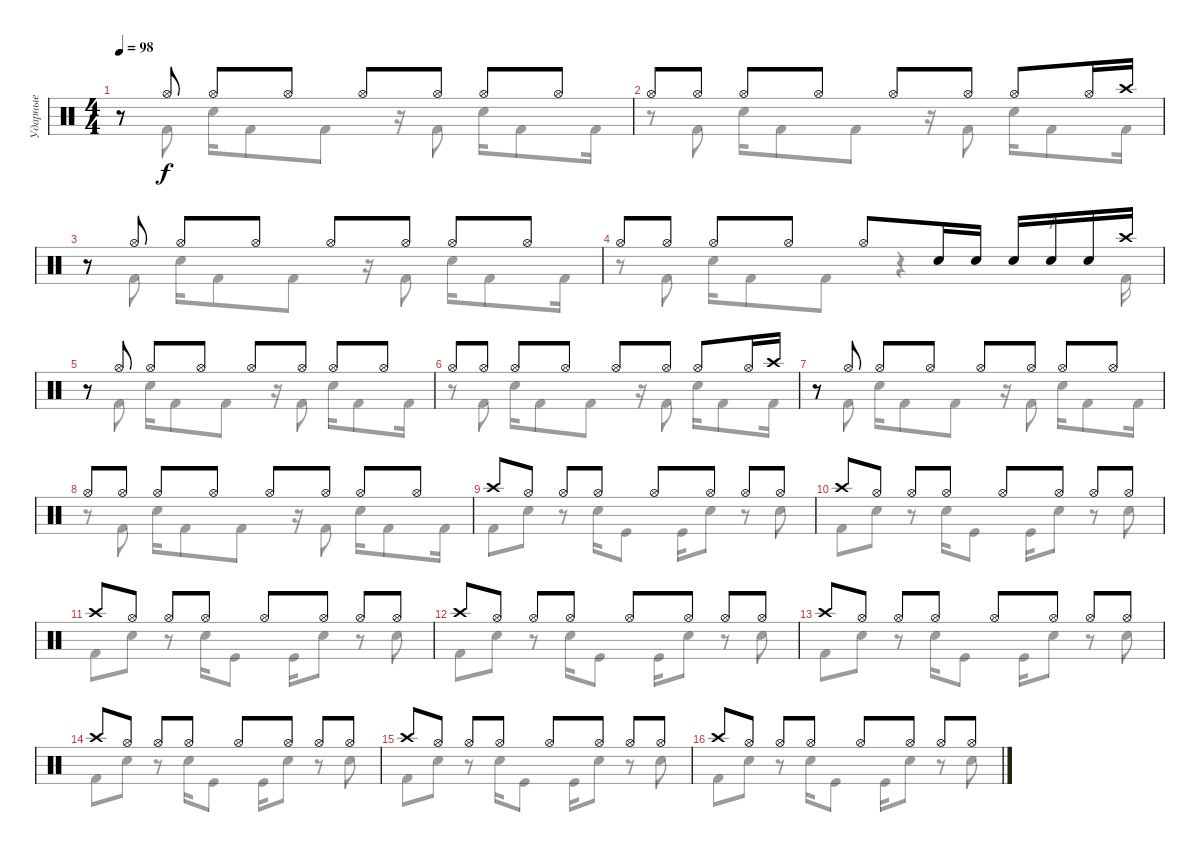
\track ("Ударные" "Ударные") {instrument percussion}
\staff {score}
\articulation defaults
\voice
\ts (4 4)
\tempo 98
\clef neutral
\ks c
r.8{dy f} "Hi-Hat (open)".8 "Hi-Hat (open)".8 "Hi-Hat (open)".8 "Hi-Hat (open)".8 "Hi-Hat (open)".8 "Hi-Hat (open)".8 "Hi-Hat (open)".8 |
"Hi-Hat (open)".8 "Hi-Hat (open)".8 "Hi-Hat (open)".8 "Hi-Hat (open)".8 "Hi-Hat (open)".8 "Hi-Hat (open)".8 "Hi-Hat (open)".8 "Hi-Hat (open)".16 "Crash high (hit)".16 |
r.8 "Hi-Hat (open)".8 "Hi-Hat (open)".8 "Hi-Hat (open)".8 "Hi-Hat (open)".8 "Hi-Hat (open)".8 "Hi-Hat (open)".8 "Hi-Hat (open)".8 |
"Hi-Hat (open)".8 "Hi-Hat (open)".8 "Hi-Hat (open)".8 "Hi-Hat (open)".8 "Hi-Hat (open)".8 "Snare (hit) 2".16 "Snare (hit) 2".16 "Snare (hit) 2".16 "Snare (hit) 2".16 "Snare (hit) 2".16 "Crash high (hit)".16 |
r.8 "Hi-Hat (open)".8 "Hi-Hat (open)".8 "Hi-Hat (open)".8 "Hi-Hat (open)".8 "Hi-Hat (open)".8 "Hi-Hat (open)".8 "Hi-Hat (open)".8 |
"Hi-Hat (open)".8 "Hi-Hat (open)".8 "Hi-Hat (open)".8 "Hi-Hat (open)".8 "Hi-Hat (open)".8 "Hi-Hat (open)".8 "Hi-Hat (open)".8 "Hi-Hat (open)".16 "Crash high (hit)".16 |
r.8 "Hi-Hat (open)".8 "Hi-Hat (open)".8 "Hi-Hat (open)".8 "Hi-Hat (open)".8 "Hi-Hat (open)".8 "Hi-Hat (open)".8 "Hi-Hat (open)".8 |
"Hi-Hat (open)".8 "Hi-Hat (open)".8 "Hi-Hat (open)".8 "Hi-Hat (open)".8 "Hi-Hat (open)".8 "Hi-Hat (open)".8 "Hi-Hat (open)".8 "Hi-Hat (open)".8 |
"Crash high (hit)".8 "Hi-Hat (open)".8 "Hi-Hat (open)".8 "Hi-Hat (open)".8 "Hi-Hat (open)".8 "Hi-Hat (open)".8 "Hi-Hat (open)".8 "Hi-Hat (open)".8 |
"Crash high (hit)".8 "Hi-Hat (open)".8 "Hi-Hat (open)".8 "Hi-Hat (open)".8 "Hi-Hat (open)".8 "Hi-Hat (open)".8 "Hi-Hat (open)".8 "Hi-Hat (open)".8 |
"Crash high (hit)".8 "Hi-Hat (open)".8 "Hi-Hat (open)".8 "Hi-Hat (open)".8 "Hi-Hat (open)".8 "Hi-Hat (open)".8 "Hi-Hat (open)".8 "Hi-Hat (open)".8 |
"Crash high (hit)".8 "Hi-Hat (open)".8 "Hi-Hat (open)".8 "Hi-Hat (open)".8 "Hi-Hat (open)".8 "Hi-Hat (open)".8 "Hi-Hat (open)".8 "Hi-Hat (open)".8 |
"Crash high (hit)".8 "Hi-Hat (open)".8 "Hi-Hat (open)".8 "Hi-Hat (open)".8 "Hi-Hat (open)".8 "Hi-Hat (open)".8 "Hi-Hat (open)".8 "Hi-Hat (open)".8 |
"Crash high (hit)".8 "Hi-Hat (open)".8 "Hi-Hat (open)".8 "Hi-Hat (open)".8 "Hi-Hat (open)".8 "Hi-Hat (open)".8 "Hi-Hat (open)".8 "Hi-Hat (open)".8 |
"Crash high (hit)".8 "Hi-Hat (open)".8 "Hi-Hat (open)".8 "Hi-Hat (open)".8 "Hi-Hat (open)".8 "Hi-Hat (open)".8 "Hi-Hat (open)".8 "Hi-Hat (open)".8 |
"Crash high (hit)".8 "Hi-Hat (open)".8 "Hi-Hat (open)".8 "Hi-Hat (open)".8 "Hi-Hat (open)".8 "Hi-Hat (open)".8 "Hi-Hat (open)".8 "Hi-Hat (open)".8
\voice
\clef neutral
\ottava regular
\simile none
\ks c
r.8{dy f} "Kick (hit) 2".8 "Snare (hit) 2".16 "Kick (hit) 2".8 "Kick (hit) 2".8 r.16 "Kick (hit) 2".8 "Snare (hit) 2".16 "Kick (hit) 2".8 "Kick (hit) 2".16 |
r.8 "Kick (hit) 2".8 "Snare (hit) 2".16 "Kick (hit) 2".8 "Kick (hit) 2".8 r.16 "Kick (hit) 2".8 "Snare (hit) 2".16 "Kick (hit) 2".8 "Kick (hit) 2".16 |
r.8 "Kick (hit) 2".8 "Snare (hit) 2".16 "Kick (hit) 2".8 "Kick (hit) 2".8 r.16 "Kick (hit) 2".8 "Snare (hit) 2".16 "Kick (hit) 2".8 "Kick (hit) 2".16 |
r.8 "Kick (hit) 2".8 "Snare (hit) 2".16 "Kick (hit) 2".8 "Kick (hit) 2".8 r.4 r.8 "Kick (hit) 2".16 |
r.8 "Kick (hit) 2".8 "Snare (hit) 2".16 "Kick (hit) 2".8 "Kick (hit) 2".8 r.16 "Kick (hit) 2".8 "Snare (hit) 2".16 "Kick (hit) 2".8 "Kick (hit) 2".16 |
r.8 "Kick (hit) 2".8 "Snare (hit) 2".16 "Kick (hit) 2".8 "Kick (hit) 2".8 r.16 "Kick (hit) 2".8 "Snare (hit) 2".16 "Kick (hit) 2".8 "Kick (hit) 2".16 |
r.8 "Kick (hit) 2".8 "Snare (hit) 2".16 "Kick (hit) 2".8 "Kick (hit) 2".8 r.16 "Kick (hit) 2".8 "Snare (hit) 2".16 "Kick (hit) 2".8 "Kick (hit) 2".16 |
r.8 "Kick (hit) 2".8 "Snare (hit) 2".16 "Kick (hit) 2".8 "Kick (hit) 2".8 r.16 "Kick (hit) 2".8 "Snare (hit) 2".16 "Kick (hit) 2".8 "Kick (hit) 2".16 |
"Kick (hit) 2".8 "Snare (hit) 2".8 r.8 "Snare (hit) 2".16 "Kick (hit)".8 "Kick (hit)".16 "Snare (hit) 2".8 r.8 "Snare (hit) 2".8 |
"Kick (hit) 2".8 "Snare (hit) 2".8 r.8 "Snare (hit) 2".16 "Kick (hit)".8 "Kick (hit)".16 "Snare (hit) 2".8 r.8 "Snare (hit) 2".8 |
"Kick (hit) 2".8 "Snare (hit) 2".8 r.8 "Snare (hit) 2".16 "Kick (hit)".8 "Kick (hit)".16 "Snare (hit) 2".8 r.8 "Snare (hit) 2".8 |
"Kick (hit) 2".8 "Snare (hit) 2".8 r.8 "Snare (hit) 2".16 "Kick (hit)".8 "Kick (hit)".16 "Snare (hit) 2".8 r.8 "Snare (hit) 2".8 |
"Kick (hit) 2".8 "Snare (hit) 2".8 r.8 "Snare (hit) 2".16 "Kick (hit)".8 "Kick (hit)".16 "Snare (hit) 2".8 r.8 "Snare (hit) 2".8 |
"Kick (hit) 2".8 "Snare (hit) 2".8 r.8 "Snare (hit) 2".16 "Kick (hit)".8 "Kick (hit)".16 "Snare (hit) 2".8 r.8 "Snare (hit) 2".8 |
"Kick (hit) 2".8 "Snare (hit) 2".8 r.8 "Snare (hit) 2".16 "Kick (hit)".8 "Kick (hit)".16 "Snare (hit) 2".8 r.8 "Snare (hit) 2".8 |
"Kick (hit) 2".8 "Snare (hit) 2".8 r.8 "Snare (hit) 2".16 "Kick (hit)".8 "Kick (hit)".16 "Snare (hit) 2".8 r.8 "Snare (hit) 2".8
